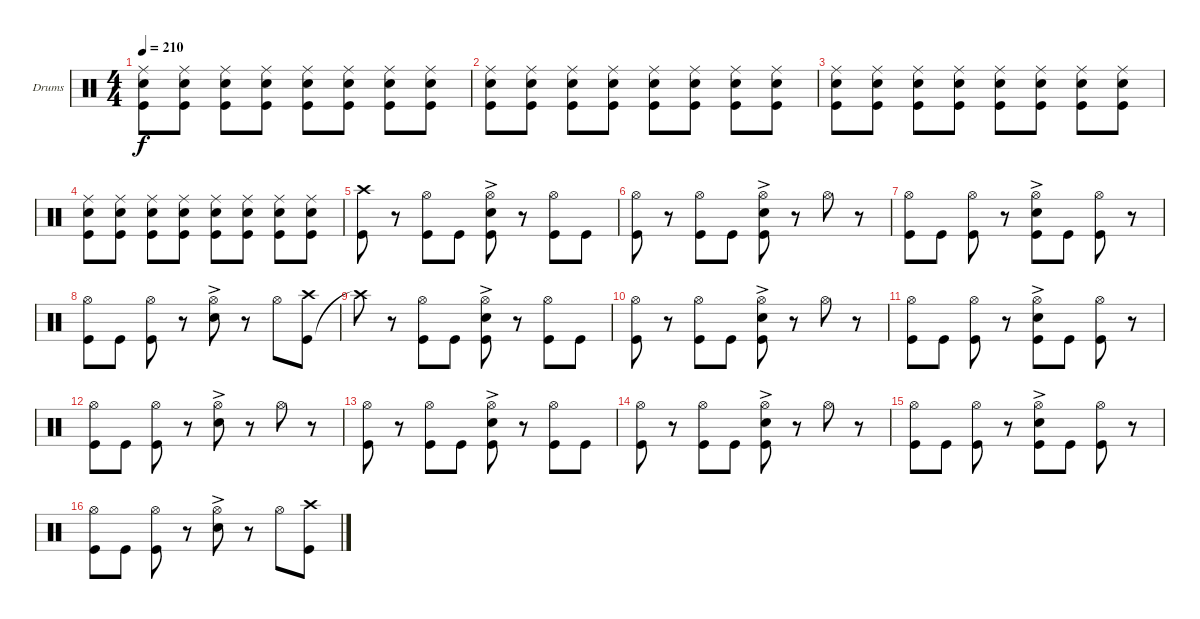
\defaultSystemsLayout 4
\bracketExtendMode groupsimilarinstruments
\firstSystemTrackNameOrientation horizontal
\otherSystemsTrackNameOrientation horizontal
\track ("Drumkit" "Drums") {instrument percussion}
\staff {score}
\articulation defaults
\ts (4 4)
\tempo 210
\clef neutral
\ks c
("Ride (middle)" "Snare (hit) 2" "Kick (hit)").8{dy f} ("Ride (middle)" "Snare (hit) 2" "Kick (hit)").8 ("Ride (middle)" "Snare (hit) 2" "Kick (hit)").8 ("Ride (middle)" "Snare (hit) 2" "Kick (hit)").8 ("Ride (middle)" "Snare (hit) 2" "Kick (hit)").8 ("Ride (middle)" "Snare (hit) 2" "Kick (hit)").8 ("Ride (middle)" "Snare (hit) 2" "Kick (hit)").8 ("Ride (middle)" "Snare (hit) 2" "Kick (hit)").8 |
("Ride (middle)" "Snare (hit) 2" "Kick (hit)").8 ("Ride (middle)" "Snare (hit) 2" "Kick (hit)").8 ("Ride (middle)" "Snare (hit) 2" "Kick (hit)").8 ("Ride (middle)" "Snare (hit) 2" "Kick (hit)").8 ("Ride (middle)" "Snare (hit) 2" "Kick (hit)").8 ("Ride (middle)" "Snare (hit) 2" "Kick (hit)").8 ("Ride (middle)" "Snare (hit) 2" "Kick (hit)").8 ("Ride (middle)" "Snare (hit) 2" "Kick (hit)").8 |
("Ride (middle)" "Snare (hit) 2" "Kick (hit)").8 ("Ride (middle)" "Snare (hit) 2" "Kick (hit)").8 ("Ride (middle)" "Snare (hit) 2" "Kick (hit)").8 ("Ride (middle)" "Snare (hit) 2" "Kick (hit)").8 ("Ride (middle)" "Snare (hit) 2" "Kick (hit)").8 ("Ride (middle)" "Snare (hit) 2" "Kick (hit)").8 ("Ride (middle)" "Snare (hit) 2" "Kick (hit)").8 ("Ride (middle)" "Snare (hit) 2" "Kick (hit)").8 |
("Ride (middle)" "Snare (hit) 2" "Kick (hit)").8 ("Ride (middle)" "Snare (hit) 2" "Kick (hit)").8 ("Ride (middle)" "Snare (hit) 2" "Kick (hit)").8 ("Ride (middle)" "Snare (hit) 2" "Kick (hit)").8 ("Ride (middle)" "Snare (hit) 2" "Kick (hit)").8 ("Ride (middle)" "Snare (hit) 2" "Kick (hit)").8 ("Ride (middle)" "Snare (hit) 2" "Kick (hit)").8 ("Ride (middle)" "Snare (hit) 2" "Kick (hit)").8 |
("Crash high (hit)" "Kick (hit)").8 r.8 ("Kick (hit)" "Hi-Hat (open)").8 "Kick (hit)".8 ("Snare (hit) 2"{ac} "Hi-Hat (open)" "Kick (hit)").8 r.8 ("Kick (hit)" "Hi-Hat (open)").8 "Kick (hit)".8 |
("Kick (hit)" "Hi-Hat (open)").8 r.8 ("Kick (hit)" "Hi-Hat (open)").8 "Kick (hit)".8 ("Snare (hit) 2"{ac} "Hi-Hat (open)" "Kick (hit)").8 r.8 "Hi-Hat (open)".8 r.8 |
("Kick (hit)" "Hi-Hat (open)").8 "Kick (hit)".8 ("Kick (hit)" "Hi-Hat (open)").8 r.8 ("Hi-Hat (open)" "Snare (hit) 2"{ac} "Kick (hit)").8 "Kick (hit)".8 ("Kick (hit)" "Hi-Hat (open)").8 r.8 |
("Kick (hit)" "Hi-Hat (open)").8 "Kick (hit)".8 ("Kick (hit)" "Hi-Hat (open)").8 r.8 ("Snare (hit) 2"{ac} "Hi-Hat (open)").8 r.8 "Hi-Hat (open)".8 ("Kick (hit)" "Crash high (hit)").8 |
"Crash high (hit)"{t}.8 r.8 ("Kick (hit)" "Hi-Hat (open)").8 "Kick (hit)".8 ("Snare (hit) 2"{ac} "Hi-Hat (open)" "Kick (hit)").8 r.8 ("Hi-Hat (open)" "Kick (hit)").8 "Kick (hit)".8 |
("Kick (hit)" "Hi-Hat (open)").8 r.8 ("Hi-Hat (open)" "Kick (hit)").8 "Kick (hit)".8 ("Hi-Hat (open)" "Snare (hit) 2"{ac} "Kick (hit)").8 r.8 "Hi-Hat (open)".8 r.8 |
("Kick (hit)" "Hi-Hat (open)").8 "Kick (hit)".8 ("Kick (hit)" "Hi-Hat (open)").8 r.8 ("Snare (hit) 2"{ac} "Hi-Hat (open)" "Kick (hit)").8 "Kick (hit)".8 ("Hi-Hat (open)" "Kick (hit)").8 r.8 |
("Kick (hit)" "Hi-Hat (open)").8 "Kick (hit)".8 ("Kick (hit)" "Hi-Hat (open)").8 r.8 ("Snare (hit) 2"{ac} "Hi-Hat (open)").8 r.8 "Hi-Hat (open)".8 r.8 |
("Kick (hit)" "Hi-Hat (open)").8 r.8 ("Kick (hit)" "Hi-Hat (open)").8 "Kick (hit)".8 ("Snare (hit) 2"{ac} "Hi-Hat (open)" "Kick (hit)").8 r.8 ("Kick (hit)" "Hi-Hat (open)").8 "Kick (hit)".8 |
("Kick (hit)" "Hi-Hat (open)").8 r.8 ("Kick (hit)" "Hi-Hat (open)").8 "Kick (hit)".8 ("Snare (hit) 2"{ac} "Kick (hit)" "Hi-Hat (open)").8 r.8 "Hi-Hat (open)".8 r.8 |
("Kick (hit)" "Hi-Hat (open)").8 "Kick (hit)".8 ("Kick (hit)" "Hi-Hat (open)").8 r.8 ("Hi-Hat (open)" "Snare (hit) 2"{ac} "Kick (hit)").8 "Kick (hit)".8 ("Kick (hit)" "Hi-Hat (open)").8 r.8 |
("Kick (hit)" "Hi-Hat (open)").8 "Kick (hit)".8 ("Kick (hit)" "Hi-Hat (open)").8 r.8 ("Snare (hit) 2"{ac} "Hi-Hat (open)").8 r.8 "Hi-Hat (open)".8 ("Kick (hit)" "Crash high (hit)").8
